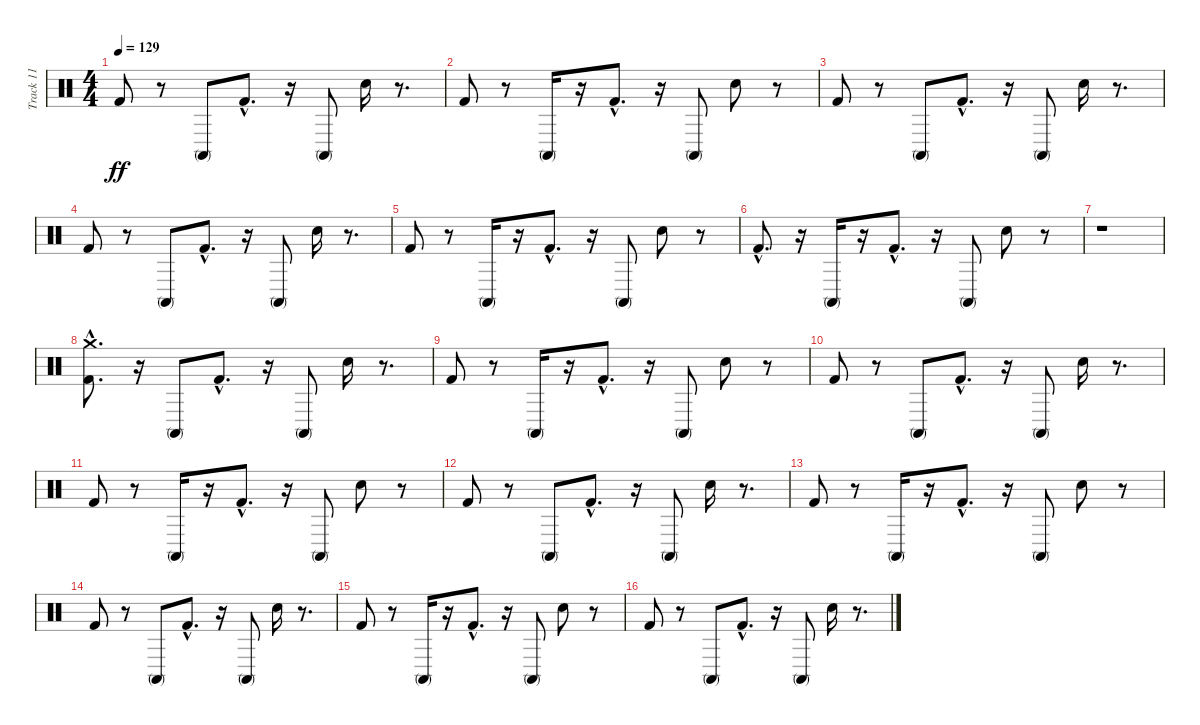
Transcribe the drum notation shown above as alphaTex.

\track ("Track 11" "Track 11") {instrument percussion}
\staff {score}
\articulation defaults
\ts (4 4)
\tempo 129
\clef neutral
\ks c "Kick (hit) 2".8{dy ff}
r.8 "Conga high (mute)".8 "Kick (hit) 2"{hac}.8{d} r.16 "Conga high (mute)".8 "Snare (hit) 2".16 r.8{d} |
"Kick (hit) 2".8 r.8 "Conga high (mute)".16 r.16 "Kick (hit) 2"{hac}.8{d} r.16 "Conga high (mute)".8 "Snare (hit) 2".8 r.8 |
"Kick (hit) 2".8 r.8 "Conga high (mute)".8 "Kick (hit) 2"{hac}.8{d} r.16 "Conga high (mute)".8 "Snare (hit) 2".16 r.8{d} |
"Kick (hit) 2".8 r.8 "Conga high (mute)".8 "Kick (hit) 2"{hac}.8{d} r.16 "Conga high (mute)".8 "Snare (hit) 2".16 r.8{d} |
"Kick (hit) 2".8 r.8 "Conga high (mute)".16 r.16 "Kick (hit) 2"{hac}.8{d} r.16 "Conga high (mute)".8 "Snare (hit) 2".8 r.8 |
"Kick (hit) 2"{hac}.8{d} r.16 "Conga high (mute)".16 r.16 "Kick (hit) 2"{hac}.8{d} r.16 "Conga high (mute)".8 "Snare (hit) 2".8 r.8 |
r.1 |
("Crash medium (hit)"{hac} "Kick (hit) 2").8{d} r.16 "Conga high (mute)".8 "Kick (hit) 2"{hac}.8{d} r.16 "Conga high (mute)".8 "Snare (hit) 2".16 r.8{d} |
"Kick (hit) 2".8 r.8 "Conga high (mute)".16 r.16 "Kick (hit) 2"{hac}.8{d} r.16 "Conga high (mute)".8 "Snare (hit) 2".8 r.8 |
"Kick (hit) 2".8 r.8 "Conga high (mute)".8 "Kick (hit) 2"{hac}.8{d} r.16 "Conga high (mute)".8 "Snare (hit) 2".16 r.8{d} |
"Kick (hit) 2".8 r.8 "Conga high (mute)".16 r.16 "Kick (hit) 2"{hac}.8{d} r.16 "Conga high (mute)".8 "Snare (hit) 2".8 r.8 |
"Kick (hit) 2".8 r.8 "Conga high (mute)".8 "Kick (hit) 2"{hac}.8{d} r.16 "Conga high (mute)".8 "Snare (hit) 2".16 r.8{d} |
"Kick (hit) 2".8 r.8 "Conga high (mute)".16 r.16 "Kick (hit) 2"{hac}.8{d} r.16 "Conga high (mute)".8 "Snare (hit) 2".8 r.8 |
"Kick (hit) 2".8 r.8 "Conga high (mute)".8 "Kick (hit) 2"{hac}.8{d} r.16 "Conga high (mute)".8 "Snare (hit) 2".16 r.8{d} |
"Kick (hit) 2".8 r.8 "Conga high (mute)".16 r.16 "Kick (hit) 2"{hac}.8{d} r.16 "Conga high (mute)".8 "Snare (hit) 2".8 r.8 |
"Kick (hit) 2".8 r.8 "Conga high (mute)".8 "Kick (hit) 2"{hac}.8{d} r.16 "Conga high (mute)".8 "Snare (hit) 2".16 r.8{d}
